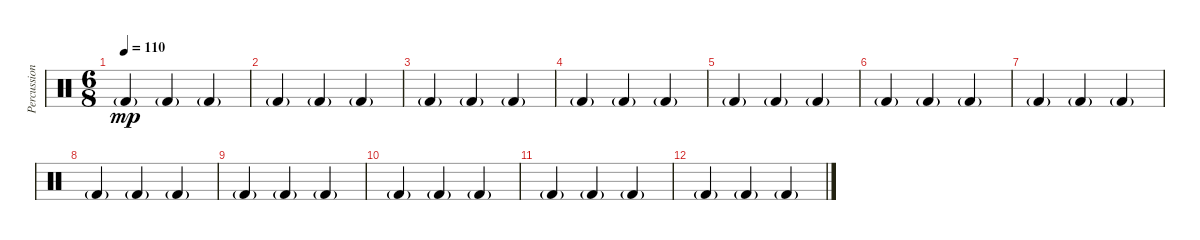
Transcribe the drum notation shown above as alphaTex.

\track ("Percussion" "Percussion") {instrument percussion}
\staff {score}
\articulation defaults
\ts (6 8)
\tempo 110
\clef neutral
\ks c "Kick (hit) 2"{g}.4{dy mp} "Kick (hit) 2"{g}.4 "Kick (hit) 2"{g}.4
|
"Kick (hit) 2"{g}.4 "Kick (hit) 2"{g}.4 "Kick (hit) 2"{g}.4 |
"Kick (hit) 2"{g}.4 "Kick (hit) 2"{g}.4 "Kick (hit) 2"{g}.4 |
"Kick (hit) 2"{g}.4 "Kick (hit) 2"{g}.4 "Kick (hit) 2"{g}.4 |
"Kick (hit) 2"{g}.4 "Kick (hit) 2"{g}.4 "Kick (hit) 2"{g}.4 |
"Kick (hit) 2"{g}.4 "Kick (hit) 2"{g}.4 "Kick (hit) 2"{g}.4 |
"Kick (hit) 2"{g}.4 "Kick (hit) 2"{g}.4 "Kick (hit) 2"{g}.4 |
"Kick (hit) 2"{g}.4 "Kick (hit) 2"{g}.4 "Kick (hit) 2"{g}.4 |
"Kick (hit) 2"{g}.4 "Kick (hit) 2"{g}.4 "Kick (hit) 2"{g}.4 |
"Kick (hit) 2"{g}.4 "Kick (hit) 2"{g}.4 "Kick (hit) 2"{g}.4 |
"Kick (hit) 2"{g}.4 "Kick (hit) 2"{g}.4 "Kick (hit) 2"{g}.4 |
"Kick (hit) 2"{g}.4 "Kick (hit) 2"{g}.4 "Kick (hit) 2"{g}.4
